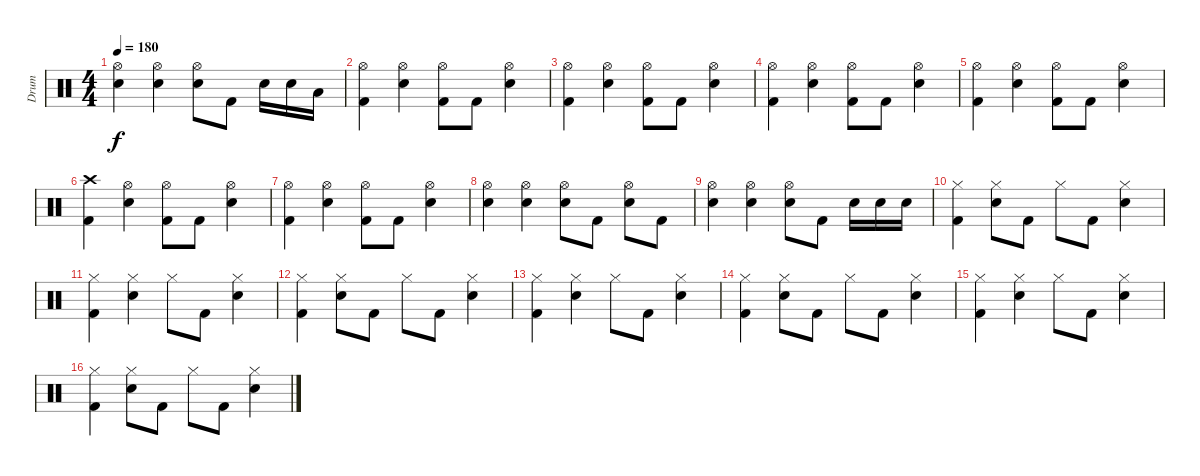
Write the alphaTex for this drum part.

\track ("Drum" "Drum") {instrument percussion}
\staff {score}
\articulation defaults
\ts (4 4)
\tempo 180
\clef neutral
\ks c
("Hi-Hat (open)" "Electric Snare (hit)").4{dy f} ("Hi-Hat (open)" "Electric Snare (hit)").4 ("Hi-Hat (open)" "Electric Snare (hit)").8 "Kick (hit) 2".8 "Electric Snare (hit)".16 "Electric Snare (hit)".16 "Low Tom (hit)".16 |
("Hi-Hat (open)" "Kick (hit) 2").4 ("Hi-Hat (open)" "Electric Snare (hit)").4 ("Hi-Hat (open)" "Kick (hit) 2").8 "Kick (hit) 2".8 ("Hi-Hat (open)" "Electric Snare (hit)").4 |
("Hi-Hat (open)" "Kick (hit) 2").4 ("Hi-Hat (open)" "Electric Snare (hit)").4 ("Hi-Hat (open)" "Kick (hit) 2").8 "Kick (hit) 2".8 ("Hi-Hat (open)" "Electric Snare (hit)").4 |
("Hi-Hat (open)" "Kick (hit) 2").4 ("Hi-Hat (open)" "Electric Snare (hit)").4 ("Hi-Hat (open)" "Kick (hit) 2").8 "Kick (hit) 2".8 ("Hi-Hat (open)" "Electric Snare (hit)").4 |
("Hi-Hat (open)" "Kick (hit) 2").4 ("Hi-Hat (open)" "Electric Snare (hit)").4 ("Hi-Hat (open)" "Kick (hit) 2").8 "Kick (hit) 2".8 ("Hi-Hat (open)" "Electric Snare (hit)").4 |
("Crash high (hit)" "Kick (hit) 2").4 ("Hi-Hat (open)" "Electric Snare (hit)").4 ("Hi-Hat (open)" "Kick (hit) 2").8 "Kick (hit) 2".8 ("Hi-Hat (open)" "Electric Snare (hit)").4 |
("Hi-Hat (open)" "Kick (hit) 2").4 ("Hi-Hat (open)" "Electric Snare (hit)").4 ("Hi-Hat (open)" "Kick (hit) 2").8 "Kick (hit) 2".8 ("Hi-Hat (open)" "Electric Snare (hit)").4 |
("Hi-Hat (open)" "Electric Snare (hit)").4 ("Hi-Hat (open)" "Electric Snare (hit)").4 ("Hi-Hat (open)" "Electric Snare (hit)").8 "Kick (hit) 2".8 ("Hi-Hat (open)" "Electric Snare (hit)").8 "Kick (hit) 2".8 |
("Hi-Hat (open)" "Electric Snare (hit)").4 ("Hi-Hat (open)" "Electric Snare (hit)").4 ("Hi-Hat (open)" "Electric Snare (hit)").8 "Kick (hit) 2".8 "Electric Snare (hit)".16 "Electric Snare (hit)".16 "Electric Snare (hit)".16 |
("Hi-Hat (closed)" "Kick (hit) 2").4 ("Hi-Hat (closed)" "Electric Snare (hit)").8 "Kick (hit) 2".8 "Hi-Hat (closed)".8 "Kick (hit) 2".8 ("Hi-Hat (closed)" "Electric Snare (hit)").4 |
("Hi-Hat (closed)" "Kick (hit) 2").4 ("Hi-Hat (closed)" "Electric Snare (hit)").4 "Hi-Hat (closed)".8 "Kick (hit) 2".8 ("Hi-Hat (closed)" "Electric Snare (hit)").4 |
("Hi-Hat (closed)" "Kick (hit) 2").4 ("Hi-Hat (closed)" "Electric Snare (hit)").8 "Kick (hit) 2".8 "Hi-Hat (closed)".8 "Kick (hit) 2".8 ("Hi-Hat (closed)" "Electric Snare (hit)").4 |
("Hi-Hat (closed)" "Kick (hit) 2").4 ("Hi-Hat (closed)" "Electric Snare (hit)").4 "Hi-Hat (closed)".8 "Kick (hit) 2".8 ("Hi-Hat (closed)" "Electric Snare (hit)").4 |
("Hi-Hat (closed)" "Kick (hit) 2").4 ("Hi-Hat (closed)" "Electric Snare (hit)").8 "Kick (hit) 2".8 "Hi-Hat (closed)".8 "Kick (hit) 2".8 ("Hi-Hat (closed)" "Electric Snare (hit)").4 |
("Hi-Hat (closed)" "Kick (hit) 2").4 ("Hi-Hat (closed)" "Electric Snare (hit)").4 "Hi-Hat (closed)".8 "Kick (hit) 2".8 ("Hi-Hat (closed)" "Electric Snare (hit)").4 |
("Hi-Hat (closed)" "Kick (hit) 2").4 ("Hi-Hat (closed)" "Electric Snare (hit)").8 "Kick (hit) 2".8 "Hi-Hat (closed)".8 "Kick (hit) 2".8 ("Hi-Hat (closed)" "Electric Snare (hit)").4
